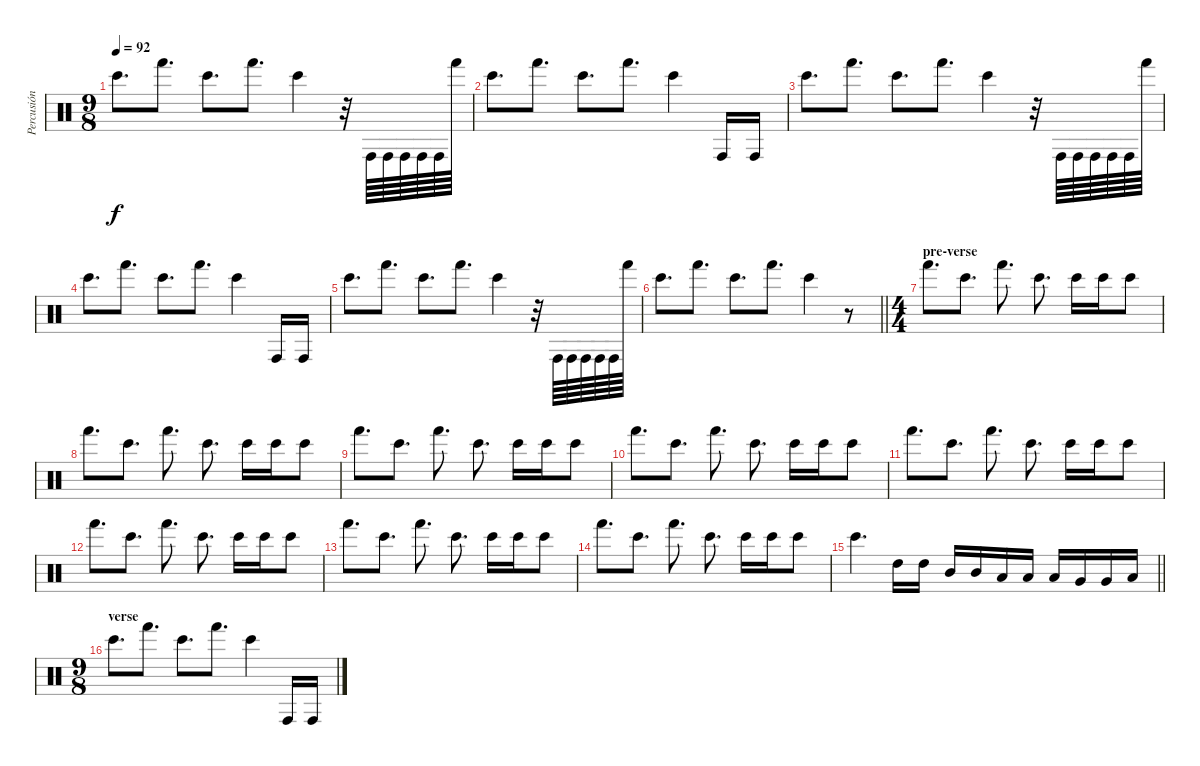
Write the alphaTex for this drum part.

\track ("Percusión" "Percusión") {instrument percussion}
\staff {score}
\articulation defaults
\ts (9 8)
\tempo 92
\clef neutral
\ks c "Bongo High (hit)".8{d dy f} "Hand (hit)".8{d} "Bongo High (hit)".8{d} "Hand (hit)".8{d} "Bongo High (hit)".4
r.32 "Conga high (hit)".64 "Conga high (hit)".64 "Conga high (hit)".64 "Conga high (hit)".64 "Conga high (hit)".64 "Hand (hit)".64 |
"Bongo High (hit)".8{d} "Hand (hit)".8{d} "Bongo High (hit)".8{d} "Hand (hit)".8{d} "Bongo High (hit)".4 "Conga high (hit)".16 "Conga high (hit)".16 |
"Bongo High (hit)".8{d} "Hand (hit)".8{d} "Bongo High (hit)".8{d} "Hand (hit)".8{d} "Bongo High (hit)".4 r.32 "Conga high (hit)".64 "Conga high (hit)".64 "Conga high (hit)".64 "Conga high (hit)".64 "Conga high (hit)".64 "Hand (hit)".64 |
"Bongo High (hit)".8{d} "Hand (hit)".8{d} "Bongo High (hit)".8{d} "Hand (hit)".8{d} "Bongo High (hit)".4 "Conga high (hit)".16 "Conga high (hit)".16 |
"Bongo High (hit)".8{d} "Hand (hit)".8{d} "Bongo High (hit)".8{d} "Hand (hit)".8{d} "Bongo High (hit)".4 r.32 "Conga high (hit)".64 "Conga high (hit)".64 "Conga high (hit)".64 "Conga high (hit)".64 "Conga high (hit)".64 "Hand (hit)".64 |
\barLineRight lightlight "Bongo High (hit)".8{d} "Hand (hit)".8{d} "Bongo High (hit)".8{d} "Hand (hit)".8{d} "Bongo High (hit)".4
r.8 |
\ts (4 4)
\section ("" "pre-verse")
"Hand (hit)".8{d volume 16} "Bongo High (hit)".8{d} "Hand (hit)".8{d} "Bongo High (hit)".8{d} "Bongo High (hit)".16 "Bongo High (hit)".16 "Bongo High (hit)".8 |
"Hand (hit)".8{d} "Bongo High (hit)".8{d} "Hand (hit)".8{d} "Bongo High (hit)".8{d} "Bongo High (hit)".16 "Bongo High (hit)".16 "Bongo High (hit)".8 |
"Hand (hit)".8{d} "Bongo High (hit)".8{d} "Hand (hit)".8{d} "Bongo High (hit)".8{d} "Bongo High (hit)".16 "Bongo High (hit)".16 "Bongo High (hit)".8 |
"Hand (hit)".8{d} "Bongo High (hit)".8{d} "Hand (hit)".8{d} "Bongo High (hit)".8{d} "Bongo High (hit)".16 "Bongo High (hit)".16 "Bongo High (hit)".8 |
"Hand (hit)".8{d} "Bongo High (hit)".8{d} "Hand (hit)".8{d} "Bongo High (hit)".8{d} "Bongo High (hit)".16 "Bongo High (hit)".16 "Bongo High (hit)".8 |
"Hand (hit)".8{d} "Bongo High (hit)".8{d} "Hand (hit)".8{d} "Bongo High (hit)".8{d} "Bongo High (hit)".16 "Bongo High (hit)".16 "Bongo High (hit)".8 |
"Hand (hit)".8{d} "Bongo High (hit)".8{d} "Hand (hit)".8{d} "Bongo High (hit)".8{d} "Bongo High (hit)".16 "Bongo High (hit)".16 "Bongo High (hit)".8 |
"Hand (hit)".8{d} "Bongo High (hit)".8{d} "Hand (hit)".8{d} "Bongo High (hit)".8{d} "Bongo High (hit)".16 "Bongo High (hit)".16 "Bongo High (hit)".8 |
\barLineRight lightlight "Bongo High (hit)".4{d volume 11} "High Tom (hit)".16 "High Tom (hit)".16 "Mid Tom (hit)".16 "Mid Tom (hit)".16 "Low Tom (hit)".16 "Low Tom (hit)".16 "Low Tom (hit)".16 "Very Low Tom (hit)".16 "Very Low Tom (hit)".16 "Low Floor Tom (hit)".16
|
\ts (9 8)
\section ("" "verse")
"Bongo High (hit)".8{d} "Hand (hit)".8{d} "Bongo High (hit)".8{d} "Hand (hit)".8{d} "Bongo High (hit)".4 "Conga high (hit)".16 "Conga high (hit)".16
